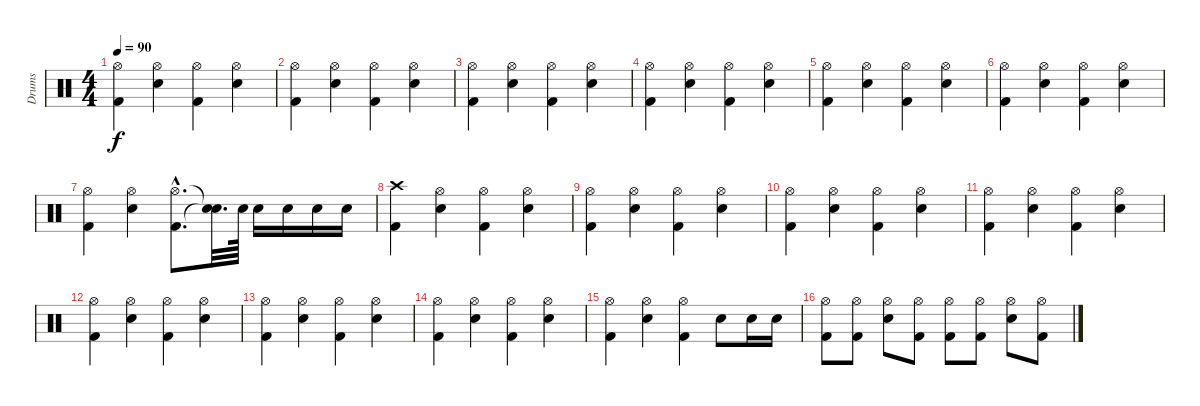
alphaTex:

\track ("Drums" "Drums") {instrument percussion}
\staff {score}
\articulation defaults
\ts (4 4)
\tempo 90
\clef neutral
\ks c
("Hi-Hat (open)" "Kick (hit) 2").4{dy f} ("Hi-Hat (open)" "Snare (hit) 2").4 ("Hi-Hat (open)" "Kick (hit) 2").4 ("Snare (hit) 2" "Hi-Hat (open)").4 |
("Kick (hit) 2" "Hi-Hat (open)").4 ("Snare (hit) 2" "Hi-Hat (open)").4 ("Kick (hit) 2" "Hi-Hat (open)").4 ("Hi-Hat (open)" "Snare (hit) 2").4 |
("Kick (hit) 2" "Hi-Hat (open)").4 ("Snare (hit) 2" "Hi-Hat (open)").4 ("Kick (hit) 2" "Hi-Hat (open)").4 ("Hi-Hat (open)" "Snare (hit) 2").4 |
("Kick (hit) 2" "Hi-Hat (open)").4 ("Snare (hit) 2" "Hi-Hat (open)").4 ("Kick (hit) 2" "Hi-Hat (open)").4 ("Hi-Hat (open)" "Snare (hit) 2").4 |
("Kick (hit) 2" "Hi-Hat (open)").4 ("Snare (hit) 2" "Hi-Hat (open)").4 ("Kick (hit) 2" "Hi-Hat (open)").4 ("Hi-Hat (open)" "Snare (hit) 2").4 |
("Kick (hit) 2" "Hi-Hat (open)").4 ("Snare (hit) 2" "Hi-Hat (open)").4 ("Kick (hit) 2" "Hi-Hat (open)").4 ("Hi-Hat (open)" "Snare (hit) 2").4 |
("Hi-Hat (open)" "Kick (hit) 2").4 ("Snare (hit) 2" "Hi-Hat (open)").4 ("Kick (hit) 2"{hac} "Hi-Hat (open)"{hac}).8{d} ("Snare (hit)"{t} "Snare (hit)"{t}).32{d} "Snare (hit) 2".64 "Snare (hit) 2".16 "Snare (hit) 2".16 "Snare (hit) 2".16 "Snare (hit) 2".16 |
("Crash high (hit)" "Kick (hit) 2").4 ("Hi-Hat (open)" "Snare (hit) 2").4 ("Kick (hit) 2" "Hi-Hat (open)").4 ("Snare (hit) 2" "Hi-Hat (open)").4 |
("Kick (hit) 2" "Hi-Hat (open)").4 ("Snare (hit) 2" "Hi-Hat (open)").4 ("Hi-Hat (open)" "Kick (hit) 2").4 ("Snare (hit) 2" "Hi-Hat (open)").4 |
("Kick (hit) 2" "Hi-Hat (open)").4 ("Snare (hit) 2" "Hi-Hat (open)").4 ("Kick (hit) 2" "Hi-Hat (open)").4 ("Hi-Hat (open)" "Snare (hit) 2").4 |
("Kick (hit) 2" "Hi-Hat (open)").4 ("Snare (hit) 2" "Hi-Hat (open)").4 ("Kick (hit) 2" "Hi-Hat (open)").4 ("Hi-Hat (open)" "Snare (hit) 2").4 |
("Hi-Hat (open)" "Kick (hit) 2").4 ("Hi-Hat (open)" "Snare (hit) 2").4 ("Kick (hit) 2" "Hi-Hat (open)").4 ("Hi-Hat (open)" "Snare (hit) 2").4 |
("Kick (hit) 2" "Hi-Hat (open)").4 ("Snare (hit) 2" "Hi-Hat (open)").4 ("Hi-Hat (open)" "Kick (hit) 2").4 ("Hi-Hat (open)" "Snare (hit) 2").4 |
("Hi-Hat (open)" "Kick (hit) 2").4 ("Hi-Hat (open)" "Snare (hit) 2").4 ("Kick (hit) 2" "Hi-Hat (open)").4 ("Hi-Hat (open)" "Snare (hit) 2").4 |
("Hi-Hat (open)" "Kick (hit) 2").4 ("Hi-Hat (open)" "Snare (hit) 2").4 ("Hi-Hat (open)" "Kick (hit) 2").4 "Snare (hit) 2".8 "Snare (hit) 2".16 "Snare (hit) 2".16 |
("Kick (hit) 2" "Hi-Hat (open)").8 ("Kick (hit) 2" "Hi-Hat (open)").8 ("Snare (hit) 2" "Hi-Hat (open)").8 ("Kick (hit) 2" "Hi-Hat (open)").8 ("Kick (hit) 2" "Hi-Hat (open)").8 ("Kick (hit) 2" "Hi-Hat (open)").8 ("Hi-Hat (open)" "Snare (hit) 2").8 ("Hi-Hat (open)" "Kick (hit) 2").8
